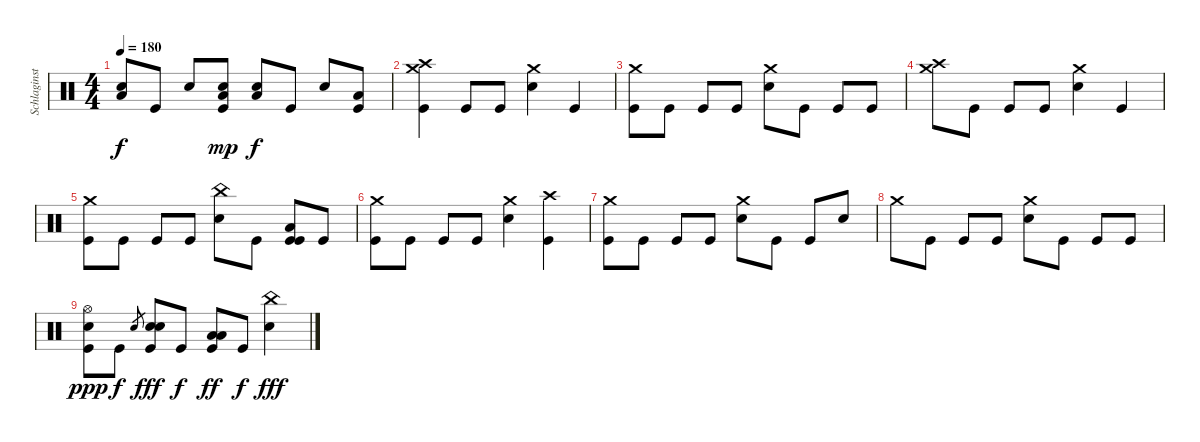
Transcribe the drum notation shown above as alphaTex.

\track ("Schlaginstrumente - Auswahl" "Schlaginst") {instrument percussion}
\staff {score}
\articulation defaults
\ts (4 4)
\tempo 180
\clef neutral
\ks c
("Low Floor Tom (hit)" "Snare (hit) 2").8{dy f} "Kick (hit)".8 "Snare (hit) 2".8 ("Low Floor Tom (hit)" "Kick (hit)" "Snare (hit) 2").8{dy mp} ("Low Floor Tom (hit)" "Snare (hit) 2").8{dy f} "Kick (hit)".8 "Snare (hit) 2".8 ("Kick (hit)" "Low Floor Tom (hit)").8 |
("Crash medium (hit)" "Kick (hit)" "Crash high (hit)").4 "Kick (hit)".8 "Kick (hit)".8 ("Crash medium (hit)" "Snare (hit) 2").4 "Kick (hit)".4 |
("Crash medium (hit)" "Kick (hit)").8 "Kick (hit)".8 "Kick (hit)".8 "Kick (hit)".8 ("Snare (hit) 2" "Crash medium (hit)").8 "Kick (hit)".8 "Kick (hit)".8 "Kick (hit)".8 |
("Crash medium (hit)" "Crash high (hit)").8 "Kick (hit)".8 "Kick (hit)".8 "Kick (hit)".8 ("Crash medium (hit)" "Snare (hit) 2").4 "Kick (hit)".4 |
("Crash medium (hit)" "Kick (hit)").8 "Kick (hit)".8 "Kick (hit)".8 "Kick (hit)".8 ("Snare (hit) 2" "China (hit)").8 "Kick (hit)".8 ("Kick (hit)" "Low Floor Tom (hit)" "Kick (hit)").8 "Kick (hit)".8 |
("Crash medium (hit)" "Kick (hit)").8 "Kick (hit)".8 "Kick (hit)".8 "Kick (hit)".8 ("Snare (hit) 2" "Crash medium (hit)").4 ("Kick (hit)" "Crash high (hit)").4 |
("Crash medium (hit)" "Kick (hit)").8 "Kick (hit)".8 "Kick (hit)".8 "Kick (hit)".8 ("Snare (hit) 2" "Crash medium (hit)").8 "Kick (hit)".8 "Kick (hit)".8 "Snare (hit) 2".8 |
"Crash medium (hit)".8 "Kick (hit)".8 "Kick (hit)".8 "Kick (hit)".8 ("Snare (hit) 2" "Crash medium (hit)").8 "Kick (hit)".8 "Kick (hit)".8 "Kick (hit)".8 |
("Hi-Hat (open)" "Snare (hit) 2" "Kick (hit)").8{dy ppp} "Kick (hit)".8{dy f} "Electric Snare (hit)".8{gr} ("Snare (hit) 2" "Kick (hit)" "Electric Snare (hit)").8{dy fff} "Kick (hit)".8{dy f} ("Kick (hit)" "Low Tom (hit)" "Low Floor Tom (hit)").8{dy ff} "Kick (hit)".8{dy f} ("Snare (hit) 2" "China (hit)").4{dy fff}
